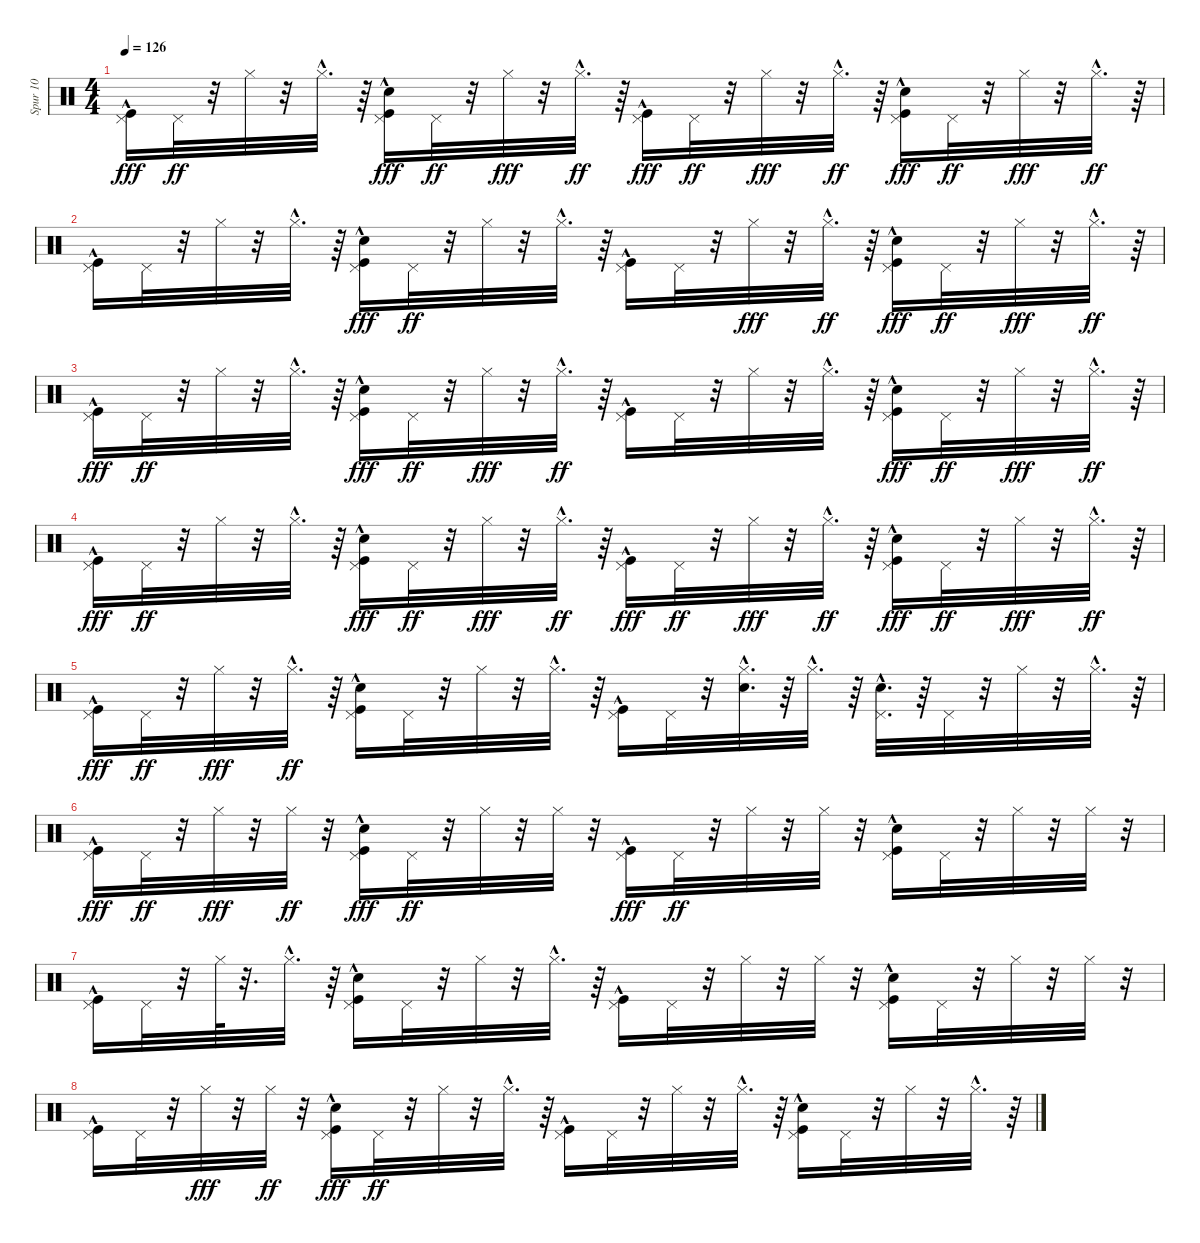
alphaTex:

\track ("Spur 10" "Spur 10") {instrument percussion}
\staff {score}
\articulation defaults
\ts (4 4)
\tempo 126
\clef neutral
\ks c
("Kick (hit)"{hac} "Pedal Hi-Hat (hit)").16{dy fff} "Pedal Hi-Hat (hit)".32{dy ff} r.32 "Hi-Hat (closed)".32 r.32 "Hi-Hat (closed)"{hac}.32{d} r.64 ("Kick (hit)"{hac} "Snare (hit) 2"{hac} "Pedal Hi-Hat (hit)").16{dy fff} "Pedal Hi-Hat (hit)".32{dy ff} r.32 "Hi-Hat (closed)".32{dy fff} r.32 "Hi-Hat (closed)"{hac}.32{d dy ff} r.64 ("Kick (hit)"{hac} "Pedal Hi-Hat (hit)").16{dy fff} "Pedal Hi-Hat (hit)".32{dy ff} r.32 "Hi-Hat (closed)".32{dy fff} r.32 "Hi-Hat (closed)"{hac}.32{d dy ff} r.64 ("Snare (hit) 2"{hac} "Kick (hit)"{hac} "Pedal Hi-Hat (hit)").16{dy fff} "Pedal Hi-Hat (hit)".32{dy ff} r.32 "Hi-Hat (closed)".32{dy fff} r.32 "Hi-Hat (closed)"{hac}.32{d dy ff} r.64 |
("Kick (hit)"{hac} "Pedal Hi-Hat (hit)").16 "Pedal Hi-Hat (hit)".32 r.32 "Hi-Hat (closed)".32 r.32 "Hi-Hat (closed)"{hac}.32{d} r.64 ("Snare (hit) 2"{hac} "Kick (hit)"{hac} "Pedal Hi-Hat (hit)").16{dy fff} "Pedal Hi-Hat (hit)".32{dy ff} r.32 "Hi-Hat (closed)".32 r.32 "Hi-Hat (closed)"{hac}.32{d} r.64 ("Kick (hit)"{hac} "Pedal Hi-Hat (hit)").16 "Pedal Hi-Hat (hit)".32 r.32 "Hi-Hat (closed)".32{dy fff} r.32 "Hi-Hat (closed)"{hac}.32{d dy ff} r.64 ("Kick (hit)"{hac} "Snare (hit) 2"{hac} "Pedal Hi-Hat (hit)").16{dy fff} "Pedal Hi-Hat (hit)".32{dy ff} r.32 "Hi-Hat (closed)".32{dy fff} r.32 "Hi-Hat (closed)"{hac}.32{d dy ff} r.64 |
("Kick (hit)"{hac} "Pedal Hi-Hat (hit)").16{dy fff} "Pedal Hi-Hat (hit)".32{dy ff} r.32 "Hi-Hat (closed)".32 r.32 "Hi-Hat (closed)"{hac}.32{d} r.64 ("Snare (hit) 2"{hac} "Kick (hit)"{hac} "Pedal Hi-Hat (hit)").16{dy fff} "Pedal Hi-Hat (hit)".32{dy ff} r.32 "Hi-Hat (closed)".32{dy fff} r.32 "Hi-Hat (closed)"{hac}.32{d dy ff} r.64 ("Kick (hit)"{hac} "Pedal Hi-Hat (hit)").16 "Pedal Hi-Hat (hit)".32 r.32 "Hi-Hat (closed)".32 r.32 "Hi-Hat (closed)"{hac}.32{d} r.64 ("Kick (hit)"{hac} "Snare (hit) 2"{hac} "Pedal Hi-Hat (hit)").16{dy fff} "Pedal Hi-Hat (hit)".32{dy ff} r.32 "Hi-Hat (closed)".32{dy fff} r.32 "Hi-Hat (closed)"{hac}.32{d dy ff} r.64 |
("Kick (hit)"{hac} "Pedal Hi-Hat (hit)").16{dy fff} "Pedal Hi-Hat (hit)".32{dy ff} r.32 "Hi-Hat (closed)".32 r.32 "Hi-Hat (closed)"{hac}.32{d} r.64 ("Snare (hit) 2"{hac} "Kick (hit)"{hac} "Pedal Hi-Hat (hit)").16{dy fff} "Pedal Hi-Hat (hit)".32{dy ff} r.32 "Hi-Hat (closed)".32{dy fff} r.32 "Hi-Hat (closed)"{hac}.32{d dy ff} r.64 ("Kick (hit)"{hac} "Pedal Hi-Hat (hit)").16{dy fff} "Pedal Hi-Hat (hit)".32{dy ff} r.32 "Hi-Hat (closed)".32{dy fff} r.32 "Hi-Hat (closed)"{hac}.32{d dy ff} r.64 ("Snare (hit) 2"{hac} "Kick (hit)"{hac} "Pedal Hi-Hat (hit)").16{dy fff} "Pedal Hi-Hat (hit)".32{dy ff} r.32 "Hi-Hat (closed)".32{dy fff} r.32 "Hi-Hat (closed)"{hac}.32{d dy ff} r.64 |
("Kick (hit)"{hac} "Pedal Hi-Hat (hit)").16{dy fff} "Pedal Hi-Hat (hit)".32{dy ff} r.32 "Hi-Hat (closed)".32{dy fff} r.32 "Hi-Hat (closed)"{hac}.32{d dy ff} r.64 ("Snare (hit) 2" "Kick (hit)"{hac} "Pedal Hi-Hat (hit)").16 "Pedal Hi-Hat (hit)".32 r.32 "Hi-Hat (closed)".32 r.32 "Hi-Hat (closed)"{hac}.32{d} r.64 ("Kick (hit)"{hac} "Pedal Hi-Hat (hit)").16 "Pedal Hi-Hat (hit)".32 r.32 ("Snare (hit) 2"{hac} "Hi-Hat (closed)").32{d} r.64 "Hi-Hat (closed)"{hac}.32{d} r.64 ("Snare (hit) 2"{hac} "Pedal Hi-Hat (hit)").32{d} r.64 "Pedal Hi-Hat (hit)".32 r.32 "Hi-Hat (closed)".32 r.32 "Hi-Hat (closed)"{hac}.32{d} r.64 |
("Kick (hit)"{hac} "Pedal Hi-Hat (hit)").16{dy fff} "Pedal Hi-Hat (hit)".32{dy ff} r.32 "Hi-Hat (closed)".32{dy fff} r.32 "Hi-Hat (closed)".32{dy ff} r.32 ("Snare (hit) 2" "Kick (hit)"{hac} "Pedal Hi-Hat (hit)").16{dy fff} "Pedal Hi-Hat (hit)".32{dy ff} r.32 "Hi-Hat (closed)".32 r.32 "Hi-Hat (closed)".32 r.32 ("Kick (hit)"{hac} "Pedal Hi-Hat (hit)").16{dy fff} "Pedal Hi-Hat (hit)".32{dy ff} r.32 "Hi-Hat (closed)".32 r.32 "Hi-Hat (closed)".32 r.32 ("Kick (hit)"{hac} "Snare (hit) 2"{hac} "Pedal Hi-Hat (hit)").16 "Pedal Hi-Hat (hit)".32 r.32 "Hi-Hat (closed)".32 r.32 "Hi-Hat (closed)".32 r.32 |
("Kick (hit)"{hac} "Pedal Hi-Hat (hit)").16 "Pedal Hi-Hat (hit)".32 r.32 "Hi-Hat (closed)".64 r.32{d} "Hi-Hat (closed)"{hac}.32{d} r.64 ("Kick (hit)"{hac} "Snare (hit) 2"{hac} "Pedal Hi-Hat (hit)").16 "Pedal Hi-Hat (hit)".32 r.32 "Hi-Hat (closed)".32 r.32 "Hi-Hat (closed)"{hac}.32{d} r.64 ("Kick (hit)"{hac} "Pedal Hi-Hat (hit)").16 "Pedal Hi-Hat (hit)".32 r.32 "Hi-Hat (closed)".32 r.32 "Hi-Hat (closed)".32 r.32 ("Snare (hit) 2" "Kick (hit)"{hac} "Pedal Hi-Hat (hit)").16 "Pedal Hi-Hat (hit)".32 r.32 "Hi-Hat (closed)".32 r.32 "Hi-Hat (closed)".32 r.32 |
("Kick (hit)"{hac} "Pedal Hi-Hat (hit)").16 "Pedal Hi-Hat (hit)".32 r.32 "Hi-Hat (closed)".32{dy fff} r.32 "Hi-Hat (closed)".32{dy ff} r.32 ("Kick (hit)"{hac} "Snare (hit) 2"{hac} "Pedal Hi-Hat (hit)").16{dy fff} "Pedal Hi-Hat (hit)".32{dy ff} r.32 "Hi-Hat (closed)".32 r.32 "Hi-Hat (closed)"{hac}.32{d} r.64 ("Kick (hit)"{hac} "Pedal Hi-Hat (hit)").16 "Pedal Hi-Hat (hit)".32 r.32 "Hi-Hat (closed)".32 r.32 "Hi-Hat (closed)"{hac}.32{d} r.64 ("Snare (hit) 2"{hac} "Kick (hit)"{hac} "Pedal Hi-Hat (hit)").16 "Pedal Hi-Hat (hit)".32 r.32 "Hi-Hat (closed)".32 r.32 "Hi-Hat (closed)"{hac}.32{d} r.64
